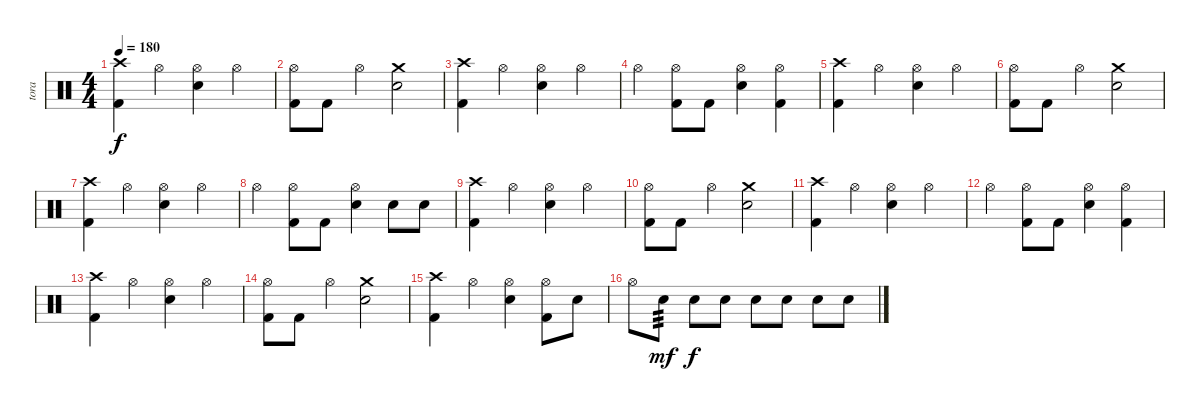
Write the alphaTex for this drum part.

\track ("tora" "tora") {instrument percussion}
\staff {score}
\articulation defaults
\ts (4 4)
\tempo 180
\clef neutral
\ks c
("Crash high (hit)" "Kick (hit) 2").4{dy f} "Hi-Hat (open)".4 ("Hi-Hat (open)" "Snare (hit) 2").4 "Hi-Hat (open)".4 |
("Hi-Hat (open)" "Kick (hit) 2").8 "Kick (hit) 2".8 "Hi-Hat (open)".4 ("Crash medium (hit)" "Snare (hit) 2").2 |
("Crash high (hit)" "Kick (hit) 2").4 "Hi-Hat (open)".4 ("Hi-Hat (open)" "Snare (hit) 2").4 "Hi-Hat (open)".4 |
"Hi-Hat (open)".4 ("Hi-Hat (open)" "Kick (hit) 2").8 "Kick (hit) 2".8 ("Hi-Hat (open)" "Snare (hit) 2").4 ("Hi-Hat (open)" "Kick (hit) 2").4 |
("Crash high (hit)" "Kick (hit) 2").4 "Hi-Hat (open)".4 ("Hi-Hat (open)" "Snare (hit) 2").4 "Hi-Hat (open)".4 |
("Hi-Hat (open)" "Kick (hit) 2").8 "Kick (hit) 2".8 "Hi-Hat (open)".4 ("Crash medium (hit)" "Snare (hit) 2").2 |
("Crash high (hit)" "Kick (hit) 2").4 "Hi-Hat (open)".4 ("Hi-Hat (open)" "Snare (hit) 2").4 "Hi-Hat (open)".4 |
"Hi-Hat (open)".4 ("Hi-Hat (open)" "Kick (hit) 2").8 "Kick (hit) 2".8 ("Hi-Hat (open)" "Snare (hit) 2").4 "Snare (hit) 2".8 "Snare (hit) 2".8 |
("Crash high (hit)" "Kick (hit) 2").4 "Hi-Hat (open)".4 ("Hi-Hat (open)" "Snare (hit) 2").4 "Hi-Hat (open)".4 |
("Hi-Hat (open)" "Kick (hit) 2").8 "Kick (hit) 2".8 "Hi-Hat (open)".4 ("Crash medium (hit)" "Snare (hit) 2").2 |
("Crash high (hit)" "Kick (hit) 2").4 "Hi-Hat (open)".4 ("Hi-Hat (open)" "Snare (hit) 2").4 "Hi-Hat (open)".4 |
"Hi-Hat (open)".4 ("Hi-Hat (open)" "Kick (hit) 2").8 "Kick (hit) 2".8 ("Hi-Hat (open)" "Snare (hit) 2").4 ("Hi-Hat (open)" "Kick (hit) 2").4 |
("Crash high (hit)" "Kick (hit) 2").4 "Hi-Hat (open)".4 ("Hi-Hat (open)" "Snare (hit) 2").4 "Hi-Hat (open)".4 |
("Hi-Hat (open)" "Kick (hit) 2").8 "Kick (hit) 2".8 "Hi-Hat (open)".4 ("Crash medium (hit)" "Snare (hit) 2").2 |
("Crash high (hit)" "Kick (hit) 2").4 "Hi-Hat (open)".4 ("Hi-Hat (open)" "Snare (hit) 2").4 ("Hi-Hat (open)" "Kick (hit) 2").8 "Snare (hit) 2".8 |
"Hi-Hat (open)".8 "Snare (hit) 2".8{tp 3 dy mf} "Snare (hit) 2".8{dy f} "Snare (hit) 2".8 "Snare (hit) 2".8 "Snare (hit) 2".8 "Snare (hit) 2".8 "Snare (hit) 2".8
